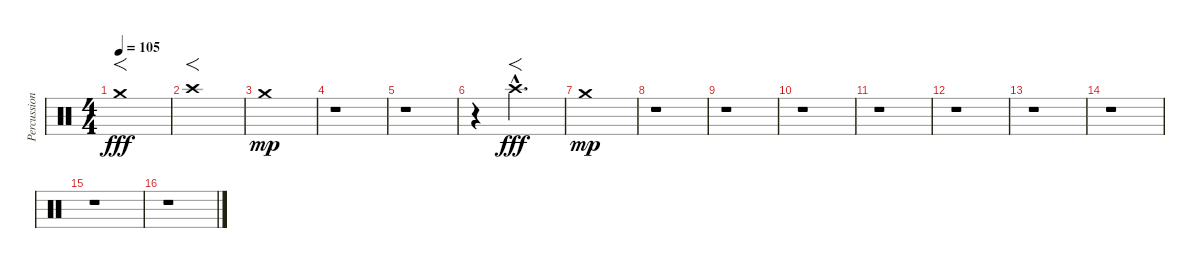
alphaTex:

\track ("Percussion" "Percussion") {instrument percussion}
\staff {score}
\articulation defaults
\ts (4 4)
\tempo 105
\clef neutral
\ks c "Crash medium (hit)".1{f dy fff}
|
"Crash high (hit)".1{f} |
"Crash medium (hit)".1{dy mp} |
r.1 |
r.1 |
r.4 "Crash high (hit)"{hac}.2{f d dy fff} |
"Crash medium (hit)".1{dy mp} |
r.1 |
r.1 |
r.1 |
r.1 |
r.1 |
r.1 |
r.1 |
r.1 |
r.1
